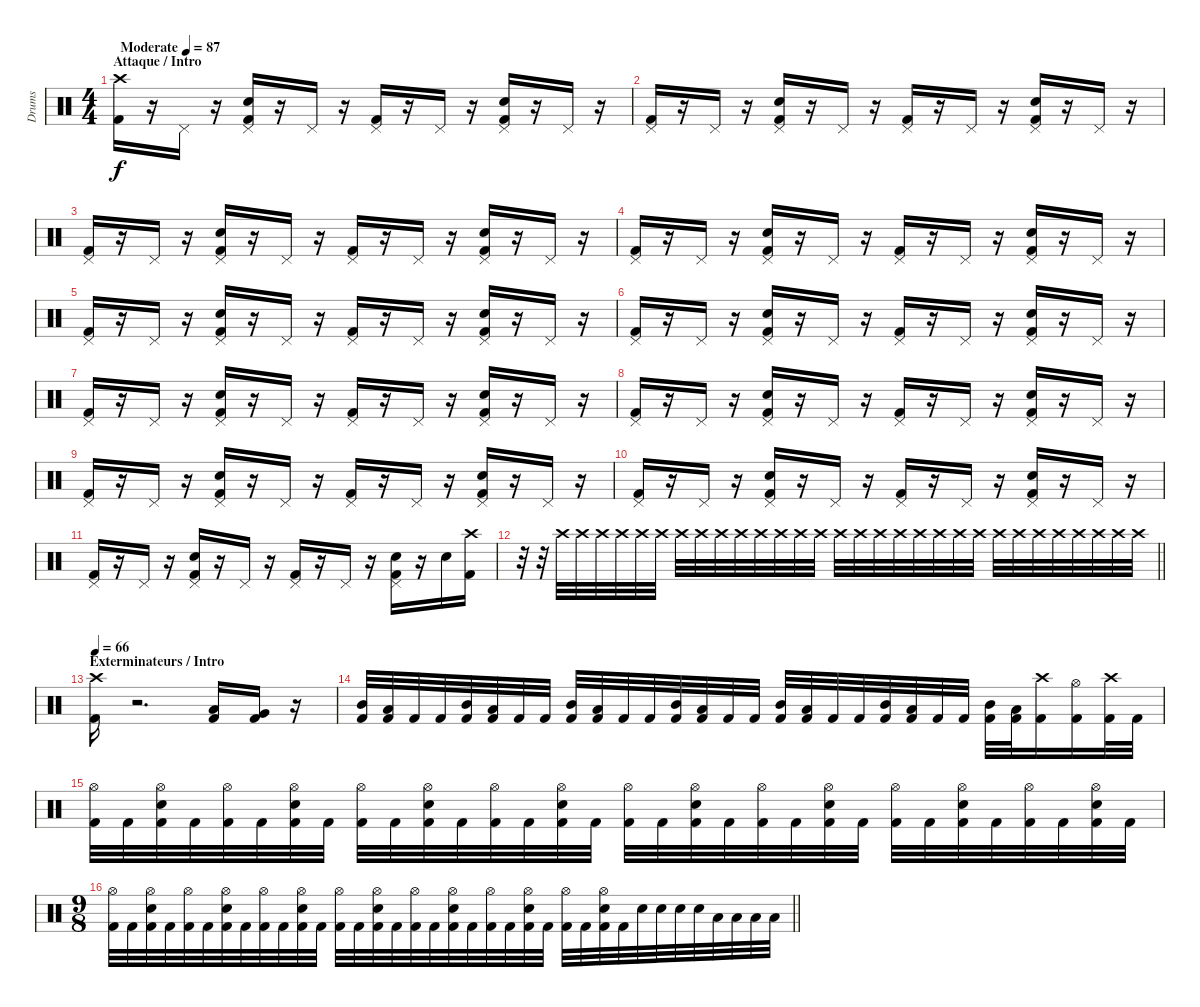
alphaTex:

\track ("Drums" "Drums") {instrument percussion}
\staff {score}
\articulation defaults
\ts (4 4)
\section ("" "Attaque / Intro")
\tempo (87 "Moderate")
\clef neutral
\ks c
("Crash high (hit)" "Kick (hit) 2").16{dy f} r.16 "Pedal Hi-Hat (hit)".16 r.16 ("Pedal Hi-Hat (hit)" "Snare (hit) 2" "Kick (hit) 2").16 r.16 "Pedal Hi-Hat (hit)".16 r.16 ("Pedal Hi-Hat (hit)" "Kick (hit) 2").16 r.16 "Pedal Hi-Hat (hit)".16 r.16 ("Pedal Hi-Hat (hit)" "Snare (hit) 2" "Kick (hit) 2").16 r.16 "Pedal Hi-Hat (hit)".16 r.16 |
("Pedal Hi-Hat (hit)" "Kick (hit) 2").16 r.16 "Pedal Hi-Hat (hit)".16 r.16 ("Pedal Hi-Hat (hit)" "Snare (hit) 2" "Kick (hit) 2").16 r.16 "Pedal Hi-Hat (hit)".16 r.16 ("Pedal Hi-Hat (hit)" "Kick (hit) 2").16 r.16 "Pedal Hi-Hat (hit)".16 r.16 ("Pedal Hi-Hat (hit)" "Snare (hit) 2" "Kick (hit) 2").16 r.16 "Pedal Hi-Hat (hit)".16 r.16 |
("Pedal Hi-Hat (hit)" "Kick (hit) 2").16 r.16 "Pedal Hi-Hat (hit)".16 r.16 ("Pedal Hi-Hat (hit)" "Snare (hit) 2" "Kick (hit) 2").16 r.16 "Pedal Hi-Hat (hit)".16 r.16 ("Pedal Hi-Hat (hit)" "Kick (hit) 2").16 r.16 "Pedal Hi-Hat (hit)".16 r.16 ("Pedal Hi-Hat (hit)" "Snare (hit) 2" "Kick (hit) 2").16 r.16 "Pedal Hi-Hat (hit)".16 r.16 |
("Pedal Hi-Hat (hit)" "Kick (hit) 2").16 r.16 "Pedal Hi-Hat (hit)".16 r.16 ("Pedal Hi-Hat (hit)" "Snare (hit) 2" "Kick (hit) 2").16 r.16 "Pedal Hi-Hat (hit)".16 r.16 ("Pedal Hi-Hat (hit)" "Kick (hit) 2").16 r.16 "Pedal Hi-Hat (hit)".16 r.16 ("Pedal Hi-Hat (hit)" "Snare (hit) 2" "Kick (hit) 2").16 r.16 "Pedal Hi-Hat (hit)".16 r.16 |
("Pedal Hi-Hat (hit)" "Kick (hit) 2").16 r.16 "Pedal Hi-Hat (hit)".16 r.16 ("Pedal Hi-Hat (hit)" "Snare (hit) 2" "Kick (hit) 2").16 r.16 "Pedal Hi-Hat (hit)".16 r.16 ("Pedal Hi-Hat (hit)" "Kick (hit) 2").16 r.16 "Pedal Hi-Hat (hit)".16 r.16 ("Pedal Hi-Hat (hit)" "Snare (hit) 2" "Kick (hit) 2").16 r.16 "Pedal Hi-Hat (hit)".16 r.16 |
("Pedal Hi-Hat (hit)" "Kick (hit) 2").16 r.16 "Pedal Hi-Hat (hit)".16 r.16 ("Pedal Hi-Hat (hit)" "Snare (hit) 2" "Kick (hit) 2").16 r.16 "Pedal Hi-Hat (hit)".16 r.16 ("Pedal Hi-Hat (hit)" "Kick (hit) 2").16 r.16 "Pedal Hi-Hat (hit)".16 r.16 ("Pedal Hi-Hat (hit)" "Snare (hit) 2" "Kick (hit) 2").16 r.16 "Pedal Hi-Hat (hit)".16 r.16 |
("Pedal Hi-Hat (hit)" "Kick (hit) 2").16 r.16 "Pedal Hi-Hat (hit)".16 r.16 ("Pedal Hi-Hat (hit)" "Snare (hit) 2" "Kick (hit) 2").16 r.16 "Pedal Hi-Hat (hit)".16 r.16 ("Pedal Hi-Hat (hit)" "Kick (hit) 2").16 r.16 "Pedal Hi-Hat (hit)".16 r.16 ("Pedal Hi-Hat (hit)" "Snare (hit) 2" "Kick (hit) 2").16 r.16 "Pedal Hi-Hat (hit)".16 r.16 |
("Pedal Hi-Hat (hit)" "Kick (hit) 2").16 r.16 "Pedal Hi-Hat (hit)".16 r.16 ("Pedal Hi-Hat (hit)" "Snare (hit) 2" "Kick (hit) 2").16 r.16 "Pedal Hi-Hat (hit)".16 r.16 ("Pedal Hi-Hat (hit)" "Kick (hit) 2").16 r.16 "Pedal Hi-Hat (hit)".16 r.16 ("Pedal Hi-Hat (hit)" "Snare (hit) 2" "Kick (hit) 2").16 r.16 "Pedal Hi-Hat (hit)".16 r.16 |
("Pedal Hi-Hat (hit)" "Kick (hit) 2").16 r.16 "Pedal Hi-Hat (hit)".16 r.16 ("Pedal Hi-Hat (hit)" "Snare (hit) 2" "Kick (hit) 2").16 r.16 "Pedal Hi-Hat (hit)".16 r.16 ("Pedal Hi-Hat (hit)" "Kick (hit) 2").16 r.16 "Pedal Hi-Hat (hit)".16 r.16 ("Pedal Hi-Hat (hit)" "Snare (hit) 2" "Kick (hit) 2").16 r.16 "Pedal Hi-Hat (hit)".16 r.16 |
("Pedal Hi-Hat (hit)" "Kick (hit) 2").16 r.16 "Pedal Hi-Hat (hit)".16 r.16 ("Pedal Hi-Hat (hit)" "Snare (hit) 2" "Kick (hit) 2").16 r.16 "Pedal Hi-Hat (hit)".16 r.16 ("Pedal Hi-Hat (hit)" "Kick (hit) 2").16 r.16 "Pedal Hi-Hat (hit)".16 r.16 ("Pedal Hi-Hat (hit)" "Snare (hit) 2" "Kick (hit) 2").16 r.16 "Pedal Hi-Hat (hit)".16 r.16 |
("Pedal Hi-Hat (hit)" "Kick (hit) 2").16 r.16 "Pedal Hi-Hat (hit)".16 r.16 ("Pedal Hi-Hat (hit)" "Snare (hit) 2" "Kick (hit) 2").16 r.16 "Pedal Hi-Hat (hit)".16 r.16 ("Pedal Hi-Hat (hit)" "Kick (hit) 2").16 r.16 "Pedal Hi-Hat (hit)".16 r.16 ("Pedal Hi-Hat (hit)" "Snare (hit) 2" "Kick (hit) 2").16 r.16 "Snare (hit) 2".16 ("Crash high (hit)" "Kick (hit) 2").16 |
\barLineRight lightlight
r.32 r.32 "Crash high (hit)".32 "Crash high (hit)".32 "Crash high (hit)".32 "Crash high (hit)".32 "Crash high (hit)".32 "Crash high (hit)".32 "Crash high (hit)".32 "Crash high (hit)".32 "Crash high (hit)".32 "Crash high (hit)".32 "Crash high (hit)".32 "Crash high (hit)".32 "Crash high (hit)".32 "Crash high (hit)".32 "Crash high (hit)".32 "Crash high (hit)".32 "Crash high (hit)".32 "Crash high (hit)".32 "Crash high (hit)".32 "Crash high (hit)".32 "Crash high (hit)".32 "Crash high (hit)".32 "Crash high (hit)".32 "Crash high (hit)".32 "Crash high (hit)".32 "Crash high (hit)".32 "Crash high (hit)".32 "Crash high (hit)".32 "Crash high (hit)".32 "Crash high (hit)".32 |
\section ("" "Exterminateurs / Intro")
\tempo 66
("Crash high (hit)" "Kick (hit) 2").16 r.2{d} ("Low Tom (hit)" "Kick (hit) 2").16 ("Very Low Tom (hit)" "Kick (hit) 2").16 r.16 |
("Mid Tom (hit)" "Kick (hit) 2").32 ("Low Tom (hit)" "Kick (hit) 2").32 "Kick (hit) 2".32 "Kick (hit) 2".32 ("Mid Tom (hit)" "Kick (hit) 2").32 ("Low Tom (hit)" "Kick (hit) 2").32 "Kick (hit) 2".32 "Kick (hit) 2".32 ("Mid Tom (hit)" "Kick (hit) 2").32 ("Low Tom (hit)" "Kick (hit) 2").32 "Kick (hit) 2".32 "Kick (hit) 2".32 ("Mid Tom (hit)" "Kick (hit) 2").32 ("Low Tom (hit)" "Kick (hit) 2").32 "Kick (hit) 2".32 "Kick (hit) 2".32 ("Mid Tom (hit)" "Kick (hit) 2").32 ("Low Tom (hit)" "Kick (hit) 2").32 "Kick (hit) 2".32 "Kick (hit) 2".32 ("Mid Tom (hit)" "Kick (hit) 2").32 ("Low Tom (hit)" "Kick (hit) 2").32 "Kick (hit) 2".32 "Kick (hit) 2".32 ("Mid Tom (hit)" "Kick (hit) 2").32 ("Low Tom (hit)" "Kick (hit) 2").32 ("Crash high (hit)" "Kick (hit) 2").16 ("Hi-Hat (open)" "Kick (hit) 2").16 ("Crash high (hit)" "Kick (hit) 2").32 "Kick (hit) 2".32 |
("Hi-Hat (open)" "Kick (hit) 2").32 "Kick (hit) 2".32 ("Hi-Hat (open)" "Snare (hit) 2" "Kick (hit) 2").32 "Kick (hit) 2".32 ("Hi-Hat (open)" "Kick (hit) 2").32 "Kick (hit) 2".32 ("Hi-Hat (open)" "Snare (hit) 2" "Kick (hit) 2").32 "Kick (hit) 2".32 ("Hi-Hat (open)" "Kick (hit) 2").32 "Kick (hit) 2".32 ("Hi-Hat (open)" "Snare (hit) 2" "Kick (hit) 2").32 "Kick (hit) 2".32 ("Hi-Hat (open)" "Kick (hit) 2").32 "Kick (hit) 2".32 ("Hi-Hat (open)" "Snare (hit) 2" "Kick (hit) 2").32 "Kick (hit) 2".32 ("Hi-Hat (open)" "Kick (hit) 2").32 "Kick (hit) 2".32 ("Hi-Hat (open)" "Snare (hit) 2" "Kick (hit) 2").32 "Kick (hit) 2".32 ("Hi-Hat (open)" "Kick (hit) 2").32 "Kick (hit) 2".32 ("Hi-Hat (open)" "Snare (hit) 2" "Kick (hit) 2").32 "Kick (hit) 2".32 ("Hi-Hat (open)" "Kick (hit) 2").32 "Kick (hit) 2".32 ("Hi-Hat (open)" "Snare (hit) 2" "Kick (hit) 2").32 "Kick (hit) 2".32 ("Hi-Hat (open)" "Kick (hit) 2").32 "Kick (hit) 2".32 ("Hi-Hat (open)" "Snare (hit) 2" "Kick (hit) 2").32 "Kick (hit) 2".32 |
\ts (9 8)
\barLineRight lightlight
("Hi-Hat (open)" "Kick (hit) 2").32 "Kick (hit) 2".32 ("Hi-Hat (open)" "Snare (hit) 2" "Kick (hit) 2").32 "Kick (hit) 2".32 ("Hi-Hat (open)" "Kick (hit) 2").32 "Kick (hit) 2".32 ("Hi-Hat (open)" "Snare (hit) 2" "Kick (hit) 2").32 "Kick (hit) 2".32 ("Hi-Hat (open)" "Kick (hit) 2").32 "Kick (hit) 2".32 ("Hi-Hat (open)" "Snare (hit) 2" "Kick (hit) 2").32 "Kick (hit) 2".32 ("Hi-Hat (open)" "Kick (hit) 2").32 "Kick (hit) 2".32 ("Hi-Hat (open)" "Snare (hit) 2" "Kick (hit) 2").32 "Kick (hit) 2".32 ("Hi-Hat (open)" "Kick (hit) 2").32 "Kick (hit) 2".32 ("Hi-Hat (open)" "Snare (hit) 2" "Kick (hit) 2").32 "Kick (hit) 2".32 ("Hi-Hat (open)" "Kick (hit) 2").32 "Kick (hit) 2".32 ("Hi-Hat (open)" "Snare (hit) 2" "Kick (hit) 2").32 "Kick (hit) 2".32 ("Hi-Hat (open)" "Kick (hit) 2").32 "Kick (hit) 2".32 ("Hi-Hat (open)" "Snare (hit) 2" "Kick (hit) 2").32 "Kick (hit) 2".32 "Snare (hit) 2".32 "Snare (hit) 2".32 "Snare (hit) 2".32 "Snare (hit) 2".32 "Low Tom (hit)".32 "Low Tom (hit)".32 "Low Tom (hit)".32 "Low Tom (hit)".32
